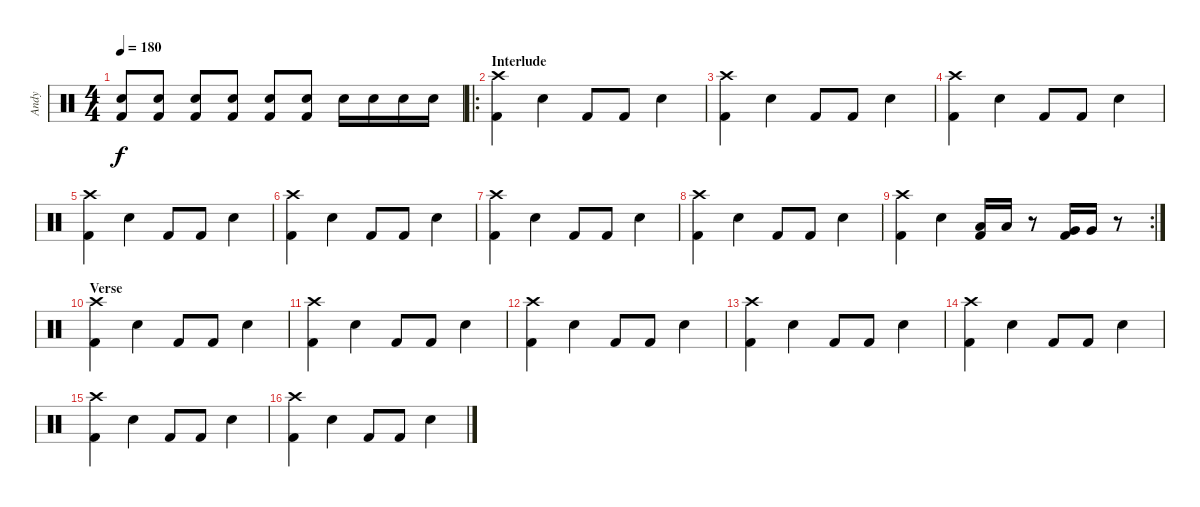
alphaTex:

\track ("Andy" "Andy") {instrument percussion}
\staff {score}
\articulation defaults
\ts (4 4)
\tempo 180
\clef neutral
\ks c
("Snare (hit) 2" "Kick (hit) 2").8{dy f} ("Snare (hit) 2" "Kick (hit) 2").8 ("Snare (hit) 2" "Kick (hit) 2").8 ("Snare (hit) 2" "Kick (hit) 2").8 ("Snare (hit) 2" "Kick (hit) 2").8 ("Snare (hit) 2" "Kick (hit) 2").8 "Snare (hit) 2".16 "Snare (hit) 2".16 "Snare (hit) 2".16 "Snare (hit) 2".16 |
\ro
\section ("" "Interlude")
("Crash high (hit)" "Kick (hit) 2").4 "Snare (hit) 2".4 "Kick (hit) 2".8 "Kick (hit) 2".8 "Snare (hit) 2".4 |
("Crash high (hit)" "Kick (hit) 2").4 "Snare (hit) 2".4 "Kick (hit) 2".8 "Kick (hit) 2".8 "Snare (hit) 2".4 |
("Crash high (hit)" "Kick (hit) 2").4 "Snare (hit) 2".4 "Kick (hit) 2".8 "Kick (hit) 2".8 "Snare (hit) 2".4 |
("Crash high (hit)" "Kick (hit) 2").4 "Snare (hit) 2".4 "Kick (hit) 2".8 "Kick (hit) 2".8 "Snare (hit) 2".4 |
("Crash high (hit)" "Kick (hit) 2").4 "Snare (hit) 2".4 "Kick (hit) 2".8 "Kick (hit) 2".8 "Snare (hit) 2".4 |
("Crash high (hit)" "Kick (hit) 2").4 "Snare (hit) 2".4 "Kick (hit) 2".8 "Kick (hit) 2".8 "Snare (hit) 2".4 |
("Crash high (hit)" "Kick (hit) 2").4 "Snare (hit) 2".4 "Kick (hit) 2".8 "Kick (hit) 2".8 "Snare (hit) 2".4 |
\rc 2
("Crash high (hit)" "Kick (hit) 2").4 "Snare (hit) 2".4 ("Low Tom (hit)" "Kick (hit) 2").16 "Low Tom (hit)".16 r.8 ("Very Low Tom (hit)" "Kick (hit) 2").16 "Very Low Tom (hit)".16 r.8 |
\section ("" "Verse")
("Crash high (hit)" "Kick (hit) 2").4 "Snare (hit) 2".4 "Kick (hit) 2".8 "Kick (hit) 2".8 "Snare (hit) 2".4 |
("Crash high (hit)" "Kick (hit) 2").4 "Snare (hit) 2".4 "Kick (hit) 2".8 "Kick (hit) 2".8 "Snare (hit) 2".4 |
("Crash high (hit)" "Kick (hit) 2").4 "Snare (hit) 2".4 "Kick (hit) 2".8 "Kick (hit) 2".8 "Snare (hit) 2".4 |
("Crash high (hit)" "Kick (hit) 2").4 "Snare (hit) 2".4 "Kick (hit) 2".8 "Kick (hit) 2".8 "Snare (hit) 2".4 |
("Crash high (hit)" "Kick (hit) 2").4 "Snare (hit) 2".4 "Kick (hit) 2".8 "Kick (hit) 2".8 "Snare (hit) 2".4 |
("Crash high (hit)" "Kick (hit) 2").4 "Snare (hit) 2".4 "Kick (hit) 2".8 "Kick (hit) 2".8 "Snare (hit) 2".4 |
("Crash high (hit)" "Kick (hit) 2").4 "Snare (hit) 2".4 "Kick (hit) 2".8 "Kick (hit) 2".8 "Snare (hit) 2".4
